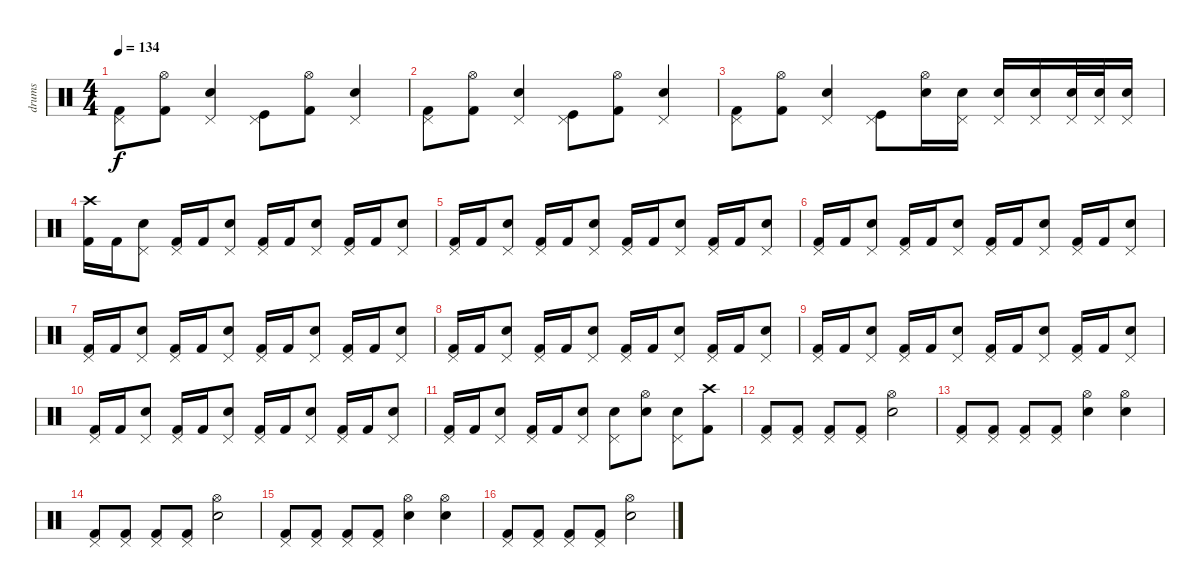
\track ("drums" "drums") {instrument percussion}
\staff {score}
\articulation defaults
\ts (4 4)
\tempo 134
\clef neutral
\ks c
("Kick (hit) 2" "Pedal Hi-Hat (hit)").8{dy f} ("Kick (hit) 2" "Hi-Hat (open)").8 ("Electric Snare (hit)" "Pedal Hi-Hat (hit)").4 ("Kick (hit)" "Pedal Hi-Hat (hit)").8 ("Kick (hit) 2" "Hi-Hat (open)").8 ("Electric Snare (hit)" "Pedal Hi-Hat (hit)").4 |
("Kick (hit) 2" "Pedal Hi-Hat (hit)").8 ("Kick (hit) 2" "Hi-Hat (open)").8 ("Electric Snare (hit)" "Pedal Hi-Hat (hit)").4 ("Kick (hit)" "Pedal Hi-Hat (hit)").8 ("Kick (hit) 2" "Hi-Hat (open)").8 ("Electric Snare (hit)" "Pedal Hi-Hat (hit)").4 |
("Kick (hit) 2" "Pedal Hi-Hat (hit)").8 ("Kick (hit) 2" "Hi-Hat (open)").8 ("Electric Snare (hit)" "Pedal Hi-Hat (hit)").4 ("Kick (hit)" "Pedal Hi-Hat (hit)").8 ("Electric Snare (hit)" "Hi-Hat (open)").16 ("Electric Snare (hit)" "Pedal Hi-Hat (hit)").16 ("Electric Snare (hit)" "Pedal Hi-Hat (hit)").16 ("Electric Snare (hit)" "Pedal Hi-Hat (hit)").16 ("Electric Snare (hit)" "Pedal Hi-Hat (hit)").32 ("Electric Snare (hit)" "Pedal Hi-Hat (hit)").32 ("Electric Snare (hit)" "Pedal Hi-Hat (hit)").16 |
("Kick (hit) 2" "Crash high (hit)").16 "Kick (hit) 2".16 ("Electric Snare (hit)" "Pedal Hi-Hat (hit)").8 ("Kick (hit) 2" "Pedal Hi-Hat (hit)").16 "Kick (hit) 2".16 ("Electric Snare (hit)" "Pedal Hi-Hat (hit)").8 ("Kick (hit) 2" "Pedal Hi-Hat (hit)").16 "Kick (hit) 2".16 ("Electric Snare (hit)" "Pedal Hi-Hat (hit)").8 ("Kick (hit) 2" "Pedal Hi-Hat (hit)").16 "Kick (hit) 2".16 ("Electric Snare (hit)" "Pedal Hi-Hat (hit)").8 |
("Kick (hit) 2" "Pedal Hi-Hat (hit)").16 "Kick (hit) 2".16 ("Electric Snare (hit)" "Pedal Hi-Hat (hit)").8 ("Kick (hit) 2" "Pedal Hi-Hat (hit)").16 "Kick (hit) 2".16 ("Electric Snare (hit)" "Pedal Hi-Hat (hit)").8 ("Kick (hit) 2" "Pedal Hi-Hat (hit)").16 "Kick (hit) 2".16 ("Electric Snare (hit)" "Pedal Hi-Hat (hit)").8 ("Kick (hit) 2" "Pedal Hi-Hat (hit)").16 "Kick (hit) 2".16 ("Electric Snare (hit)" "Pedal Hi-Hat (hit)").8 |
("Kick (hit) 2" "Pedal Hi-Hat (hit)").16 "Kick (hit) 2".16 ("Electric Snare (hit)" "Pedal Hi-Hat (hit)").8 ("Kick (hit) 2" "Pedal Hi-Hat (hit)").16 "Kick (hit) 2".16 ("Electric Snare (hit)" "Pedal Hi-Hat (hit)").8 ("Kick (hit) 2" "Pedal Hi-Hat (hit)").16 "Kick (hit) 2".16 ("Electric Snare (hit)" "Pedal Hi-Hat (hit)").8 ("Kick (hit) 2" "Pedal Hi-Hat (hit)").16 "Kick (hit) 2".16 ("Electric Snare (hit)" "Pedal Hi-Hat (hit)").8 |
("Kick (hit) 2" "Pedal Hi-Hat (hit)").16 "Kick (hit) 2".16 ("Electric Snare (hit)" "Pedal Hi-Hat (hit)").8 ("Kick (hit) 2" "Pedal Hi-Hat (hit)").16 "Kick (hit) 2".16 ("Electric Snare (hit)" "Pedal Hi-Hat (hit)").8 ("Kick (hit) 2" "Pedal Hi-Hat (hit)").16 "Kick (hit) 2".16 ("Electric Snare (hit)" "Pedal Hi-Hat (hit)").8 ("Kick (hit) 2" "Pedal Hi-Hat (hit)").16 "Kick (hit) 2".16 ("Electric Snare (hit)" "Pedal Hi-Hat (hit)").8 |
("Kick (hit) 2" "Pedal Hi-Hat (hit)").16 "Kick (hit) 2".16 ("Electric Snare (hit)" "Pedal Hi-Hat (hit)").8 ("Kick (hit) 2" "Pedal Hi-Hat (hit)").16 "Kick (hit) 2".16 ("Electric Snare (hit)" "Pedal Hi-Hat (hit)").8 ("Kick (hit) 2" "Pedal Hi-Hat (hit)").16 "Kick (hit) 2".16 ("Electric Snare (hit)" "Pedal Hi-Hat (hit)").8 ("Kick (hit) 2" "Pedal Hi-Hat (hit)").16 "Kick (hit) 2".16 ("Electric Snare (hit)" "Pedal Hi-Hat (hit)").8 |
("Kick (hit) 2" "Pedal Hi-Hat (hit)").16 "Kick (hit) 2".16 ("Electric Snare (hit)" "Pedal Hi-Hat (hit)").8 ("Kick (hit) 2" "Pedal Hi-Hat (hit)").16 "Kick (hit) 2".16 ("Electric Snare (hit)" "Pedal Hi-Hat (hit)").8 ("Kick (hit) 2" "Pedal Hi-Hat (hit)").16 "Kick (hit) 2".16 ("Electric Snare (hit)" "Pedal Hi-Hat (hit)").8 ("Kick (hit) 2" "Pedal Hi-Hat (hit)").16 "Kick (hit) 2".16 ("Electric Snare (hit)" "Pedal Hi-Hat (hit)").8 |
("Kick (hit) 2" "Pedal Hi-Hat (hit)").16 "Kick (hit) 2".16 ("Electric Snare (hit)" "Pedal Hi-Hat (hit)").8 ("Kick (hit) 2" "Pedal Hi-Hat (hit)").16 "Kick (hit) 2".16 ("Electric Snare (hit)" "Pedal Hi-Hat (hit)").8 ("Kick (hit) 2" "Pedal Hi-Hat (hit)").16 "Kick (hit) 2".16 ("Electric Snare (hit)" "Pedal Hi-Hat (hit)").8 ("Kick (hit) 2" "Pedal Hi-Hat (hit)").16 "Kick (hit) 2".16 ("Electric Snare (hit)" "Pedal Hi-Hat (hit)").8 |
("Kick (hit) 2" "Pedal Hi-Hat (hit)").16 "Kick (hit) 2".16 ("Electric Snare (hit)" "Pedal Hi-Hat (hit)").8 ("Kick (hit) 2" "Pedal Hi-Hat (hit)").16 "Kick (hit) 2".16 ("Electric Snare (hit)" "Pedal Hi-Hat (hit)").8 ("Electric Snare (hit)" "Pedal Hi-Hat (hit)").8 ("Electric Snare (hit)" "Hi-Hat (open)").8 ("Electric Snare (hit)" "Pedal Hi-Hat (hit)").8 ("Kick (hit) 2" "Crash high (hit)").8 |
("Kick (hit) 2" "Pedal Hi-Hat (hit)").8 ("Kick (hit) 2" "Pedal Hi-Hat (hit)").8 ("Kick (hit) 2" "Pedal Hi-Hat (hit)").8 ("Kick (hit) 2" "Pedal Hi-Hat (hit)").8 ("Electric Snare (hit)" "Hi-Hat (open)").2 |
("Kick (hit) 2" "Pedal Hi-Hat (hit)").8 ("Kick (hit) 2" "Pedal Hi-Hat (hit)").8 ("Kick (hit) 2" "Pedal Hi-Hat (hit)").8 ("Kick (hit) 2" "Pedal Hi-Hat (hit)").8 ("Electric Snare (hit)" "Hi-Hat (open)").4 ("Electric Snare (hit)" "Hi-Hat (open)").4 |
("Kick (hit) 2" "Pedal Hi-Hat (hit)").8 ("Kick (hit) 2" "Pedal Hi-Hat (hit)").8 ("Kick (hit) 2" "Pedal Hi-Hat (hit)").8 ("Kick (hit) 2" "Pedal Hi-Hat (hit)").8 ("Electric Snare (hit)" "Hi-Hat (open)").2 |
("Kick (hit) 2" "Pedal Hi-Hat (hit)").8 ("Kick (hit) 2" "Pedal Hi-Hat (hit)").8 ("Kick (hit) 2" "Pedal Hi-Hat (hit)").8 ("Kick (hit) 2" "Pedal Hi-Hat (hit)").8 ("Electric Snare (hit)" "Hi-Hat (open)").4 ("Electric Snare (hit)" "Hi-Hat (open)").4 |
("Kick (hit) 2" "Pedal Hi-Hat (hit)").8 ("Kick (hit) 2" "Pedal Hi-Hat (hit)").8 ("Kick (hit) 2" "Pedal Hi-Hat (hit)").8 ("Kick (hit) 2" "Pedal Hi-Hat (hit)").8 ("Electric Snare (hit)" "Hi-Hat (open)").2
